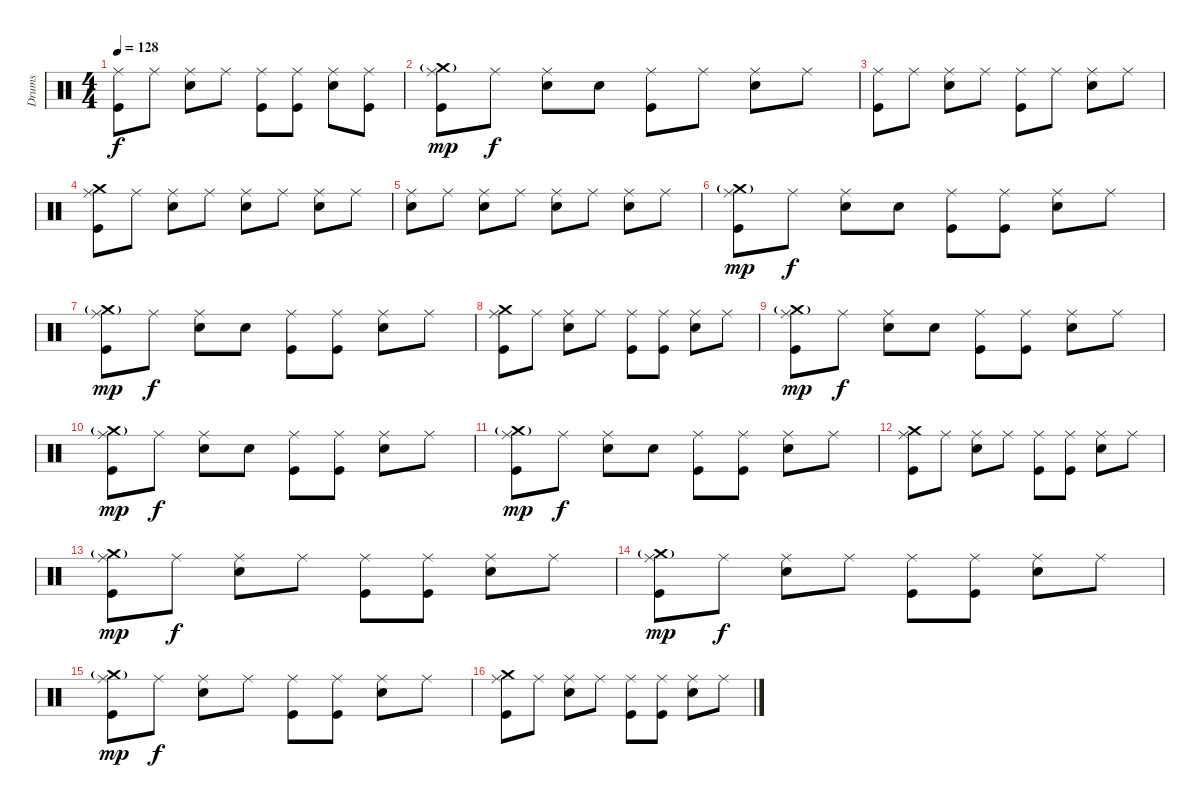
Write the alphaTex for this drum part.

\track ("Drums" "Drums") {instrument percussion}
\staff {score}
\articulation defaults
\ts (4 4)
\tempo 128
\clef neutral
\ks c
("Ride (middle)" "Kick (hit)").8{dy f} "Ride (middle)".8 ("Ride (middle)" "Snare (hit) 2").8 "Ride (middle)".8 ("Ride (middle)" "Kick (hit)").8 ("Ride (middle)" "Kick (hit)").8 ("Ride (middle)" "Snare (hit) 2").8 ("Ride (middle)" "Kick (hit)").8 |
\section ("" "")
("Ride (middle)" "Crash medium (hit)"{g} "Kick (hit)").8{dy mp} "Ride (middle)".8{dy f} ("Ride (middle)" "Snare (hit) 2").8 "Snare (hit)".8 ("Ride (middle)" "Kick (hit)").8 "Ride (middle)".8 ("Ride (middle)" "Snare (hit) 2").8 "Ride (middle)".8 |
("Ride (middle)" "Kick (hit)").8 "Ride (middle)".8 ("Ride (middle)" "Snare (hit) 2").8 "Ride (middle)".8 ("Ride (middle)" "Kick (hit)").8 "Ride (middle)".8 ("Ride (middle)" "Snare (hit) 2").8 "Ride (middle)".8 |
("Ride (middle)" "Crash medium (hit)" "Kick (hit)").8 "Ride (middle)".8 ("Ride (middle)" "Snare (hit) 2").8 "Ride (middle)".8 ("Ride (middle)" "Snare (hit) 2").8 "Ride (middle)".8 ("Ride (middle)" "Snare (hit) 2").8 "Ride (middle)".8 |
("Ride (middle)" "Snare (hit) 2").8 "Ride (middle)".8 ("Ride (middle)" "Snare (hit) 2").8 "Ride (middle)".8 ("Ride (middle)" "Snare (hit) 2").8 "Ride (middle)".8 ("Ride (middle)" "Snare (hit) 2").8 "Ride (middle)".8 |
("Ride (middle)" "Crash medium (hit)"{g} "Kick (hit)").8{dy mp} "Ride (middle)".8{dy f} ("Ride (middle)" "Snare (hit) 2").8 "Snare (hit)".8 ("Ride (middle)" "Kick (hit)").8 ("Ride (middle)" "Kick (hit)").8 ("Ride (middle)" "Snare (hit) 2").8 "Ride (middle)".8 |
("Ride (middle)" "Crash medium (hit)"{g} "Kick (hit)").8{dy mp} "Ride (middle)".8{dy f} ("Ride (middle)" "Snare (hit) 2").8 "Snare (hit)".8 ("Ride (middle)" "Kick (hit)").8 ("Ride (middle)" "Kick (hit)").8 ("Ride (middle)" "Snare (hit) 2").8 "Ride (middle)".8 |
("Ride (middle)" "Crash medium (hit)" "Kick (hit)").8 "Ride (middle)".8 ("Ride (middle)" "Snare (hit) 2").8 "Ride (middle)".8 ("Ride (middle)" "Kick (hit)").8 ("Ride (middle)" "Kick (hit)").8 ("Ride (middle)" "Snare (hit) 2").8 "Ride (middle)".8 |
("Ride (middle)" "Crash medium (hit)"{g} "Kick (hit)").8{dy mp} "Ride (middle)".8{dy f} ("Ride (middle)" "Snare (hit) 2").8 "Snare (hit)".8 ("Ride (middle)" "Kick (hit)").8 ("Ride (middle)" "Kick (hit)").8 ("Ride (middle)" "Snare (hit) 2").8 "Ride (middle)".8 |
("Ride (middle)" "Crash medium (hit)"{g} "Kick (hit)").8{dy mp} "Ride (middle)".8{dy f} ("Ride (middle)" "Snare (hit) 2").8 "Snare (hit)".8 ("Ride (middle)" "Kick (hit)").8 ("Ride (middle)" "Kick (hit)").8 ("Ride (middle)" "Snare (hit) 2").8 "Ride (middle)".8 |
("Ride (middle)" "Crash medium (hit)"{g} "Kick (hit)").8{dy mp} "Ride (middle)".8{dy f} ("Ride (middle)" "Snare (hit) 2").8 "Snare (hit)".8 ("Ride (middle)" "Kick (hit)").8 ("Ride (middle)" "Kick (hit)").8 ("Ride (middle)" "Snare (hit) 2").8 "Ride (middle)".8 |
("Ride (middle)" "Crash medium (hit)" "Kick (hit)").8 "Ride (middle)".8 ("Ride (middle)" "Snare (hit) 2").8 "Ride (middle)".8 ("Ride (middle)" "Kick (hit)").8 ("Ride (middle)" "Kick (hit)").8 ("Ride (middle)" "Snare (hit) 2").8 "Ride (middle)".8 |
("Ride (middle)" "Crash medium (hit)"{g} "Kick (hit)").8{dy mp} "Ride (middle)".8{dy f} ("Ride (middle)" "Snare (hit) 2").8 "Ride (middle)".8 ("Ride (middle)" "Kick (hit)").8 ("Ride (middle)" "Kick (hit)").8 ("Ride (middle)" "Snare (hit) 2").8 "Ride (middle)".8 |
\section ("" "")
("Ride (middle)" "Crash medium (hit)"{g} "Kick (hit)").8{dy mp} "Ride (middle)".8{dy f} ("Ride (middle)" "Snare (hit) 2").8 "Ride (middle)".8 ("Ride (middle)" "Kick (hit)").8 ("Ride (middle)" "Kick (hit)").8 ("Ride (middle)" "Snare (hit) 2").8 "Ride (middle)".8 |
("Ride (middle)" "Crash medium (hit)"{g} "Kick (hit)").8{dy mp} "Ride (middle)".8{dy f} ("Ride (middle)" "Snare (hit) 2").8 "Ride (middle)".8 ("Ride (middle)" "Kick (hit)").8 ("Ride (middle)" "Kick (hit)").8 ("Ride (middle)" "Snare (hit) 2").8 "Ride (middle)".8 |
("Ride (middle)" "Crash medium (hit)" "Kick (hit)").8 "Ride (middle)".8 ("Ride (middle)" "Snare (hit) 2").8 "Ride (middle)".8 ("Ride (middle)" "Kick (hit)").8 ("Ride (middle)" "Kick (hit)").8 ("Ride (middle)" "Snare (hit) 2").8 "Ride (middle)".8
